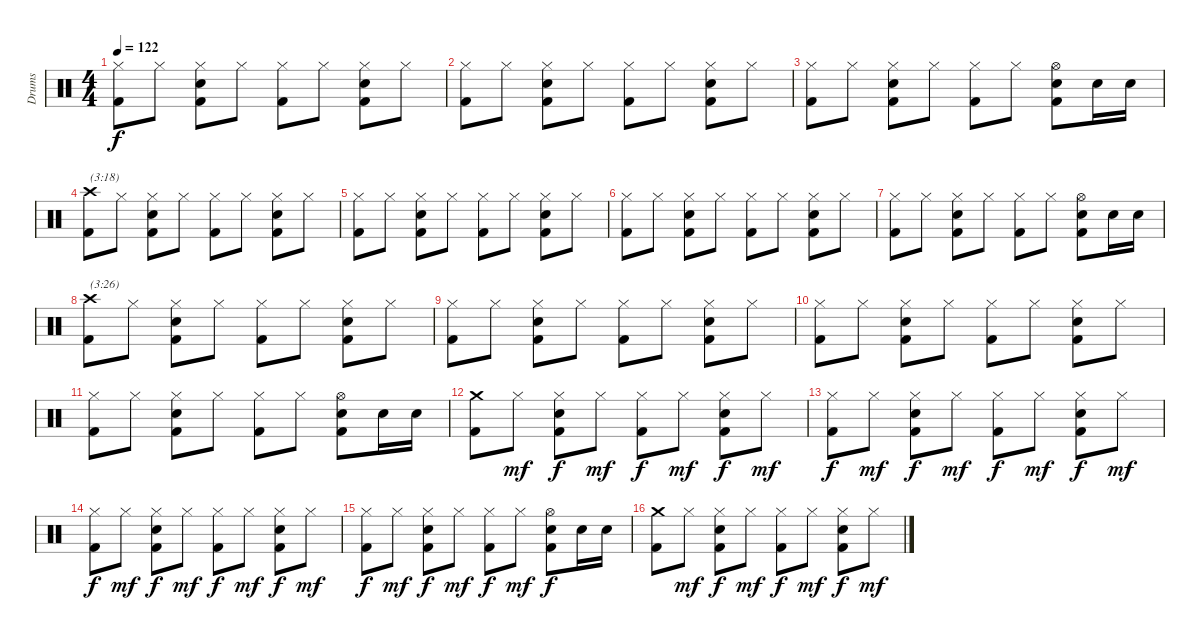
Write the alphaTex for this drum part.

\track ("Drums" "Drums") {instrument percussion}
\staff {score}
\articulation defaults
\ts (4 4)
\tempo 122
\clef neutral
\ks c
("Hi-Hat (closed)" "Kick (hit) 2").8{dy f} "Hi-Hat (closed)".8 ("Hi-Hat (closed)" "Electric Snare (hit)" "Kick (hit) 2").8 "Hi-Hat (closed)".8 ("Hi-Hat (closed)" "Kick (hit) 2").8 "Hi-Hat (closed)".8 ("Hi-Hat (closed)" "Electric Snare (hit)" "Kick (hit) 2").8 "Hi-Hat (closed)".8 |
("Hi-Hat (closed)" "Kick (hit) 2").8 "Hi-Hat (closed)".8 ("Hi-Hat (closed)" "Electric Snare (hit)" "Kick (hit) 2").8 "Hi-Hat (closed)".8 ("Hi-Hat (closed)" "Kick (hit) 2").8 "Hi-Hat (closed)".8 ("Hi-Hat (closed)" "Electric Snare (hit)" "Kick (hit) 2").8 "Hi-Hat (closed)".8 |
("Hi-Hat (closed)" "Kick (hit) 2").8 "Hi-Hat (closed)".8 ("Hi-Hat (closed)" "Electric Snare (hit)" "Kick (hit) 2").8 "Hi-Hat (closed)".8 ("Hi-Hat (closed)" "Kick (hit) 2").8 "Hi-Hat (closed)".8 ("Hi-Hat (open)" "Electric Snare (hit)" "Kick (hit) 2").8 "Electric Snare (hit)".16 "Electric Snare (hit)".16 |
("Crash high (hit)" "Kick (hit) 2").8{txt "(3:18)"} "Hi-Hat (closed)".8 ("Hi-Hat (closed)" "Electric Snare (hit)" "Kick (hit) 2").8 "Hi-Hat (closed)".8 ("Hi-Hat (closed)" "Kick (hit) 2").8 "Hi-Hat (closed)".8 ("Hi-Hat (closed)" "Electric Snare (hit)" "Kick (hit) 2").8 "Hi-Hat (closed)".8 |
("Hi-Hat (closed)" "Kick (hit) 2").8 "Hi-Hat (closed)".8 ("Hi-Hat (closed)" "Electric Snare (hit)" "Kick (hit) 2").8 "Hi-Hat (closed)".8 ("Hi-Hat (closed)" "Kick (hit) 2").8 "Hi-Hat (closed)".8 ("Hi-Hat (closed)" "Electric Snare (hit)" "Kick (hit) 2").8 "Hi-Hat (closed)".8 |
("Hi-Hat (closed)" "Kick (hit) 2").8 "Hi-Hat (closed)".8 ("Hi-Hat (closed)" "Electric Snare (hit)" "Kick (hit) 2").8 "Hi-Hat (closed)".8 ("Hi-Hat (closed)" "Kick (hit) 2").8 "Hi-Hat (closed)".8 ("Hi-Hat (closed)" "Electric Snare (hit)" "Kick (hit) 2").8 "Hi-Hat (closed)".8 |
("Hi-Hat (closed)" "Kick (hit) 2").8 "Hi-Hat (closed)".8 ("Hi-Hat (closed)" "Electric Snare (hit)" "Kick (hit) 2").8 "Hi-Hat (closed)".8 ("Hi-Hat (closed)" "Kick (hit) 2").8 "Hi-Hat (closed)".8 ("Hi-Hat (open)" "Electric Snare (hit)" "Kick (hit) 2").8 "Electric Snare (hit)".16 "Electric Snare (hit)".16 |
("Crash high (hit)" "Kick (hit) 2").8{txt "(3:26)"} "Hi-Hat (closed)".8 ("Hi-Hat (closed)" "Electric Snare (hit)" "Kick (hit) 2").8 "Hi-Hat (closed)".8 ("Hi-Hat (closed)" "Kick (hit) 2").8 "Hi-Hat (closed)".8 ("Hi-Hat (closed)" "Electric Snare (hit)" "Kick (hit) 2").8 "Hi-Hat (closed)".8 |
("Hi-Hat (closed)" "Kick (hit) 2").8 "Hi-Hat (closed)".8 ("Hi-Hat (closed)" "Electric Snare (hit)" "Kick (hit) 2").8 "Hi-Hat (closed)".8 ("Hi-Hat (closed)" "Kick (hit) 2").8 "Hi-Hat (closed)".8 ("Hi-Hat (closed)" "Electric Snare (hit)" "Kick (hit) 2").8 "Hi-Hat (closed)".8 |
("Hi-Hat (closed)" "Kick (hit) 2").8 "Hi-Hat (closed)".8 ("Hi-Hat (closed)" "Electric Snare (hit)" "Kick (hit) 2").8 "Hi-Hat (closed)".8 ("Hi-Hat (closed)" "Kick (hit) 2").8 "Hi-Hat (closed)".8 ("Hi-Hat (closed)" "Electric Snare (hit)" "Kick (hit) 2").8 "Hi-Hat (closed)".8 |
("Hi-Hat (closed)" "Kick (hit) 2").8 "Hi-Hat (closed)".8 ("Hi-Hat (closed)" "Electric Snare (hit)" "Kick (hit) 2").8 "Hi-Hat (closed)".8 ("Hi-Hat (closed)" "Kick (hit) 2").8 "Hi-Hat (closed)".8 ("Hi-Hat (open)" "Electric Snare (hit)" "Kick (hit) 2").8 "Electric Snare (hit)".16 "Electric Snare (hit)".16 |
("Crash medium (hit)" "Kick (hit) 2").8 "Hi-Hat (closed)".8{dy mf} ("Hi-Hat (closed)" "Electric Snare (hit)" "Kick (hit) 2").8{dy f} "Hi-Hat (closed)".8{dy mf} ("Hi-Hat (closed)" "Kick (hit) 2").8{dy f} "Hi-Hat (closed)".8{dy mf} ("Hi-Hat (closed)" "Electric Snare (hit)" "Kick (hit) 2").8{dy f} "Hi-Hat (closed)".8{dy mf} |
("Hi-Hat (closed)" "Kick (hit) 2").8{dy f} "Hi-Hat (closed)".8{dy mf} ("Hi-Hat (closed)" "Electric Snare (hit)" "Kick (hit) 2").8{dy f} "Hi-Hat (closed)".8{dy mf} ("Hi-Hat (closed)" "Kick (hit) 2").8{dy f} "Hi-Hat (closed)".8{dy mf} ("Hi-Hat (closed)" "Electric Snare (hit)" "Kick (hit) 2").8{dy f} "Hi-Hat (closed)".8{dy mf} |
("Hi-Hat (closed)" "Kick (hit) 2").8{dy f} "Hi-Hat (closed)".8{dy mf} ("Hi-Hat (closed)" "Electric Snare (hit)" "Kick (hit) 2").8{dy f} "Hi-Hat (closed)".8{dy mf} ("Hi-Hat (closed)" "Kick (hit) 2").8{dy f} "Hi-Hat (closed)".8{dy mf} ("Hi-Hat (closed)" "Electric Snare (hit)" "Kick (hit) 2").8{dy f} "Hi-Hat (closed)".8{dy mf} |
("Hi-Hat (closed)" "Kick (hit) 2").8{dy f} "Hi-Hat (closed)".8{dy mf} ("Hi-Hat (closed)" "Electric Snare (hit)" "Kick (hit) 2").8{dy f} "Hi-Hat (closed)".8{dy mf} ("Hi-Hat (closed)" "Kick (hit) 2").8{dy f} "Hi-Hat (closed)".8{dy mf} ("Hi-Hat (open)" "Electric Snare (hit)" "Kick (hit) 2").8{dy f} "Electric Snare (hit)".16 "Electric Snare (hit)".16 |
("Crash medium (hit)" "Kick (hit) 2").8 "Hi-Hat (closed)".8{dy mf} ("Hi-Hat (closed)" "Electric Snare (hit)" "Kick (hit) 2").8{dy f} "Hi-Hat (closed)".8{dy mf} ("Hi-Hat (closed)" "Kick (hit) 2").8{dy f} "Hi-Hat (closed)".8{dy mf} ("Hi-Hat (closed)" "Electric Snare (hit)" "Kick (hit) 2").8{dy f} "Hi-Hat (closed)".8{dy mf}
